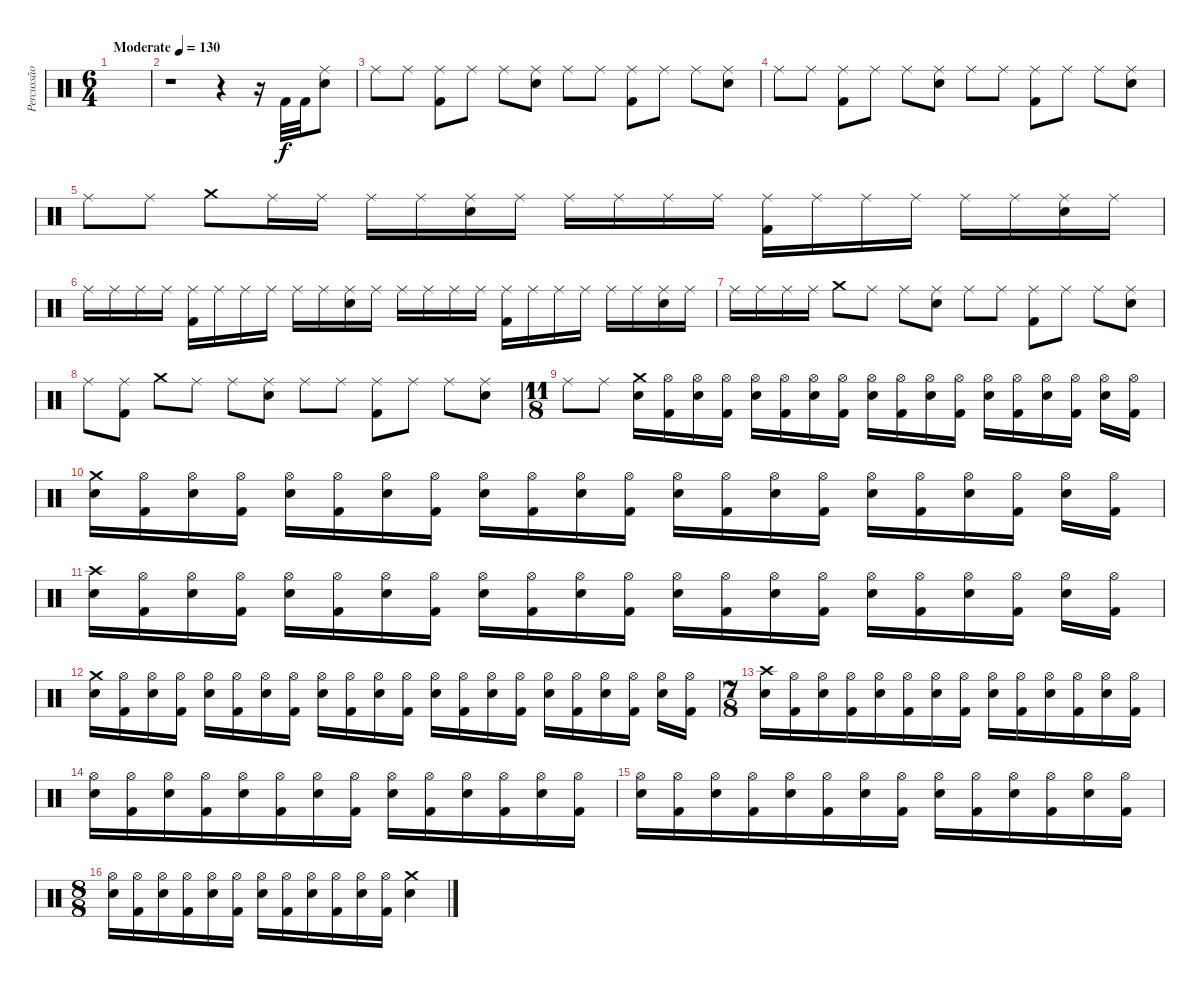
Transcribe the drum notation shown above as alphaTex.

\track ("Percussão" "Percussão") {instrument percussion}
\staff {score}
\articulation defaults
\ts (6 4)
\tempo (130 "Moderate")
\clef neutral
\ks c
|
r.1 r.4 r.16 "Kick (hit) 2".32 "Kick (hit) 2".32 ("Ride (middle)" "Electric Snare (hit)").8 |
"Ride (middle)".8 "Ride (middle)".8 ("Ride (middle)" "Kick (hit) 2").8 "Ride (middle)".8 "Ride (middle)".8 ("Ride (middle)" "Electric Snare (hit)").8 "Ride (middle)".8 "Ride (middle)".8 ("Ride (middle)" "Kick (hit) 2").8 "Ride (middle)".8 "Ride (middle)".8 ("Ride (middle)" "Electric Snare (hit)").8 |
"Ride (middle)".8 "Ride (middle)".8 ("Ride (middle)" "Kick (hit) 2").8 "Ride (middle)".8 "Ride (middle)".8 ("Ride (middle)" "Electric Snare (hit)").8 "Ride (middle)".8 "Ride (middle)".8 ("Ride (middle)" "Kick (hit) 2").8 "Ride (middle)".8 "Ride (middle)".8 ("Ride (middle)" "Electric Snare (hit)").8 |
"Ride (middle)".8 "Ride (middle)".8 "Crash medium (hit)".8 "Ride (middle)".16 "Ride (middle)".16 "Ride (middle)".16 "Ride (middle)".16 ("Ride (middle)" "Electric Snare (hit)").16 "Ride (middle)".16 "Ride (middle)".16 "Ride (middle)".16 "Ride (middle)".16 "Ride (middle)".16 ("Ride (middle)" "Kick (hit) 2").16 "Ride (middle)".16 "Ride (middle)".16 "Ride (middle)".16 "Ride (middle)".16 "Ride (middle)".16 ("Ride (middle)" "Electric Snare (hit)").16 "Ride (middle)".16 |
"Ride (middle)".16 "Ride (middle)".16 "Ride (middle)".16 "Ride (middle)".16 ("Ride (middle)" "Kick (hit) 2").16 "Ride (middle)".16 "Ride (middle)".16 "Ride (middle)".16 "Ride (middle)".16 "Ride (middle)".16 ("Ride (middle)" "Electric Snare (hit)").16 "Ride (middle)".16 "Ride (middle)".16 "Ride (middle)".16 "Ride (middle)".16 "Ride (middle)".16 ("Ride (middle)" "Kick (hit) 2").16 "Ride (middle)".16 "Ride (middle)".16 "Ride (middle)".16 "Ride (middle)".16 "Ride (middle)".16 ("Ride (middle)" "Electric Snare (hit)").16 "Ride (middle)".16 |
"Ride (middle)".16 "Ride (middle)".16 "Ride (middle)".16 "Ride (middle)".16 "Crash medium (hit)".8 "Ride (middle)".8 "Ride (middle)".8 ("Ride (middle)" "Electric Snare (hit)").8 "Ride (middle)".8 "Ride (middle)".8 ("Ride (middle)" "Kick (hit) 2").8 "Ride (middle)".8 "Ride (middle)".8 ("Ride (middle)" "Electric Snare (hit)").8 |
"Ride (middle)".8 ("Ride (middle)" "Kick (hit) 2").8 "Crash medium (hit)".8 "Ride (middle)".8 "Ride (middle)".8 ("Ride (middle)" "Electric Snare (hit)").8 "Ride (middle)".8 "Ride (middle)".8 ("Ride (middle)" "Kick (hit) 2").8 "Ride (middle)".8 "Ride (middle)".8 ("Ride (middle)" "Electric Snare (hit)").8 |
\ts (11 8)
"Ride (middle)".8 "Ride (middle)".8 ("Crash medium (hit)" "Electric Snare (hit)").16 ("Hi-Hat (open)" "Kick (hit) 2").16 ("Hi-Hat (open)" "Electric Snare (hit)").16 ("Hi-Hat (open)" "Kick (hit) 2").16 ("Hi-Hat (open)" "Electric Snare (hit)").16 ("Hi-Hat (open)" "Kick (hit) 2").16 ("Hi-Hat (open)" "Electric Snare (hit)").16 ("Hi-Hat (open)" "Kick (hit) 2").16 ("Hi-Hat (open)" "Electric Snare (hit)").16 ("Hi-Hat (open)" "Kick (hit) 2").16 ("Hi-Hat (open)" "Electric Snare (hit)").16 ("Hi-Hat (open)" "Kick (hit) 2").16 ("Hi-Hat (open)" "Electric Snare (hit)").16 ("Hi-Hat (open)" "Kick (hit) 2").16 ("Hi-Hat (open)" "Electric Snare (hit)").16 ("Hi-Hat (open)" "Kick (hit) 2").16 ("Hi-Hat (open)" "Electric Snare (hit)").16 ("Hi-Hat (open)" "Kick (hit) 2").16 |
("Crash medium (hit)" "Electric Snare (hit)").16 ("Hi-Hat (open)" "Kick (hit) 2").16 ("Hi-Hat (open)" "Electric Snare (hit)").16 ("Hi-Hat (open)" "Kick (hit) 2").16 ("Hi-Hat (open)" "Electric Snare (hit)").16 ("Hi-Hat (open)" "Kick (hit) 2").16 ("Hi-Hat (open)" "Electric Snare (hit)").16 ("Hi-Hat (open)" "Kick (hit) 2").16 ("Hi-Hat (open)" "Electric Snare (hit)").16 ("Hi-Hat (open)" "Kick (hit) 2").16 ("Hi-Hat (open)" "Electric Snare (hit)").16 ("Hi-Hat (open)" "Kick (hit) 2").16 ("Hi-Hat (open)" "Electric Snare (hit)").16 ("Hi-Hat (open)" "Kick (hit) 2").16 ("Hi-Hat (open)" "Electric Snare (hit)").16 ("Hi-Hat (open)" "Kick (hit) 2").16 ("Hi-Hat (open)" "Electric Snare (hit)").16 ("Hi-Hat (open)" "Kick (hit) 2").16 ("Hi-Hat (open)" "Electric Snare (hit)").16 ("Hi-Hat (open)" "Kick (hit) 2").16 ("Hi-Hat (open)" "Electric Snare (hit)").16 ("Hi-Hat (open)" "Kick (hit) 2").16 |
("Crash high (hit)" "Electric Snare (hit)").16 ("Hi-Hat (open)" "Kick (hit) 2").16 ("Hi-Hat (open)" "Electric Snare (hit)").16 ("Hi-Hat (open)" "Kick (hit) 2").16 ("Hi-Hat (open)" "Electric Snare (hit)").16 ("Hi-Hat (open)" "Kick (hit) 2").16 ("Hi-Hat (open)" "Electric Snare (hit)").16 ("Hi-Hat (open)" "Kick (hit) 2").16 ("Hi-Hat (open)" "Electric Snare (hit)").16 ("Hi-Hat (open)" "Kick (hit) 2").16 ("Hi-Hat (open)" "Electric Snare (hit)").16 ("Hi-Hat (open)" "Kick (hit) 2").16 ("Hi-Hat (open)" "Electric Snare (hit)").16 ("Hi-Hat (open)" "Kick (hit) 2").16 ("Hi-Hat (open)" "Electric Snare (hit)").16 ("Hi-Hat (open)" "Kick (hit) 2").16 ("Hi-Hat (open)" "Electric Snare (hit)").16 ("Hi-Hat (open)" "Kick (hit) 2").16 ("Hi-Hat (open)" "Electric Snare (hit)").16 ("Hi-Hat (open)" "Kick (hit) 2").16 ("Hi-Hat (open)" "Electric Snare (hit)").16 ("Hi-Hat (open)" "Kick (hit) 2").16 |
("Crash medium (hit)" "Electric Snare (hit)").16 ("Hi-Hat (open)" "Kick (hit) 2").16 ("Hi-Hat (open)" "Electric Snare (hit)").16 ("Hi-Hat (open)" "Kick (hit) 2").16 ("Hi-Hat (open)" "Electric Snare (hit)").16 ("Hi-Hat (open)" "Kick (hit) 2").16 ("Hi-Hat (open)" "Electric Snare (hit)").16 ("Hi-Hat (open)" "Kick (hit) 2").16 ("Hi-Hat (open)" "Electric Snare (hit)").16 ("Hi-Hat (open)" "Kick (hit) 2").16 ("Hi-Hat (open)" "Electric Snare (hit)").16 ("Hi-Hat (open)" "Kick (hit) 2").16 ("Hi-Hat (open)" "Electric Snare (hit)").16 ("Hi-Hat (open)" "Kick (hit) 2").16 ("Hi-Hat (open)" "Electric Snare (hit)").16 ("Hi-Hat (open)" "Kick (hit) 2").16 ("Hi-Hat (open)" "Electric Snare (hit)").16 ("Hi-Hat (open)" "Kick (hit) 2").16 ("Hi-Hat (open)" "Electric Snare (hit)").16 ("Hi-Hat (open)" "Kick (hit) 2").16 ("Hi-Hat (open)" "Electric Snare (hit)").16 ("Hi-Hat (open)" "Kick (hit) 2").16 |
\ts (7 8)
("Crash high (hit)" "Electric Snare (hit)").16 ("Hi-Hat (open)" "Kick (hit) 2").16 ("Hi-Hat (open)" "Electric Snare (hit)").16 ("Hi-Hat (open)" "Kick (hit) 2").16 ("Hi-Hat (open)" "Electric Snare (hit)").16 ("Hi-Hat (open)" "Kick (hit) 2").16 ("Hi-Hat (open)" "Electric Snare (hit)").16 ("Hi-Hat (open)" "Kick (hit) 2").16 ("Hi-Hat (open)" "Electric Snare (hit)").16 ("Hi-Hat (open)" "Kick (hit) 2").16 ("Hi-Hat (open)" "Electric Snare (hit)").16 ("Hi-Hat (open)" "Kick (hit) 2").16 ("Hi-Hat (open)" "Electric Snare (hit)").16 ("Hi-Hat (open)" "Kick (hit) 2").16 |
("Hi-Hat (open)" "Electric Snare (hit)").16 ("Hi-Hat (open)" "Kick (hit) 2").16 ("Hi-Hat (open)" "Electric Snare (hit)").16 ("Hi-Hat (open)" "Kick (hit) 2").16 ("Hi-Hat (open)" "Electric Snare (hit)").16 ("Hi-Hat (open)" "Kick (hit) 2").16 ("Hi-Hat (open)" "Electric Snare (hit)").16 ("Hi-Hat (open)" "Kick (hit) 2").16 ("Hi-Hat (open)" "Electric Snare (hit)").16 ("Hi-Hat (open)" "Kick (hit) 2").16 ("Hi-Hat (open)" "Electric Snare (hit)").16 ("Hi-Hat (open)" "Kick (hit) 2").16 ("Hi-Hat (open)" "Electric Snare (hit)").16 ("Hi-Hat (open)" "Kick (hit) 2").16 |
("Hi-Hat (open)" "Electric Snare (hit)").16 ("Hi-Hat (open)" "Kick (hit) 2").16 ("Hi-Hat (open)" "Electric Snare (hit)").16 ("Hi-Hat (open)" "Kick (hit) 2").16 ("Hi-Hat (open)" "Electric Snare (hit)").16 ("Hi-Hat (open)" "Kick (hit) 2").16 ("Hi-Hat (open)" "Electric Snare (hit)").16 ("Hi-Hat (open)" "Kick (hit) 2").16 ("Hi-Hat (open)" "Electric Snare (hit)").16 ("Hi-Hat (open)" "Kick (hit) 2").16 ("Hi-Hat (open)" "Electric Snare (hit)").16 ("Hi-Hat (open)" "Kick (hit) 2").16 ("Hi-Hat (open)" "Electric Snare (hit)").16 ("Hi-Hat (open)" "Kick (hit) 2").16 |
\ts (8 8)
("Hi-Hat (open)" "Electric Snare (hit)").16 ("Hi-Hat (open)" "Kick (hit) 2").16 ("Hi-Hat (open)" "Electric Snare (hit)").16 ("Hi-Hat (open)" "Kick (hit) 2").16 ("Hi-Hat (open)" "Electric Snare (hit)").16 ("Hi-Hat (open)" "Kick (hit) 2").16 ("Hi-Hat (open)" "Electric Snare (hit)").16 ("Hi-Hat (open)" "Kick (hit) 2").16 ("Hi-Hat (open)" "Electric Snare (hit)").16 ("Hi-Hat (open)" "Kick (hit) 2").16 ("Hi-Hat (open)" "Electric Snare (hit)").16 ("Hi-Hat (open)" "Kick (hit) 2").16 ("Crash medium (hit)" "Electric Snare (hit)").4
